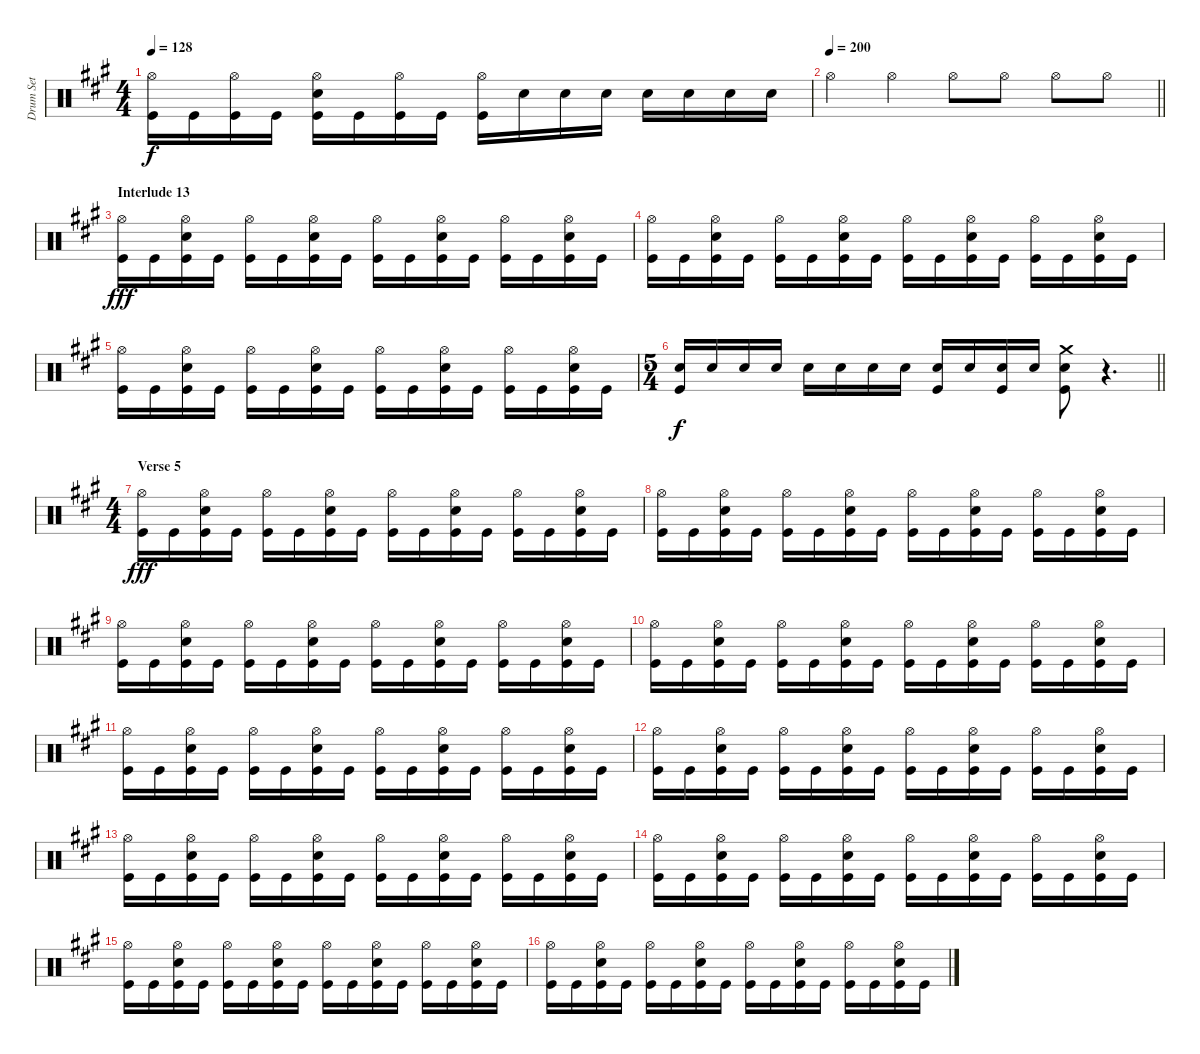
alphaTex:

\track ("Drum Set" "Drum Set") {instrument percussion}
\staff {score}
\articulation defaults
\ts (4 4)
\tempo 128
\clef neutral
\ks a
("Hi-Hat (open)" "Kick (hit)").16{dy f} "Kick (hit)".16 ("Hi-Hat (open)" "Kick (hit)").16 "Kick (hit)".16 ("Electric Snare (hit)" "Hi-Hat (open)" "Kick (hit)").16 "Kick (hit)".16 ("Hi-Hat (open)" "Kick (hit)").16 "Kick (hit)".16 ("Hi-Hat (open)" "Kick (hit)").16 "Electric Snare (hit)".16 "Electric Snare (hit)".16 "Electric Snare (hit)".16 "Electric Snare (hit)".16 "Electric Snare (hit)".16 "Electric Snare (hit)".16 "Electric Snare (hit)".16 |
\tempo 200
\barLineRight lightlight "Hi-Hat (open)".4 "Hi-Hat (open)".4 "Hi-Hat (open)".8 "Hi-Hat (open)".8 "Hi-Hat (open)".8 "Hi-Hat (open)".8
|
\section ("" "Interlude 13")
("Hi-Hat (open)" "Kick (hit)").16{dy fff} "Kick (hit)".16 ("Electric Snare (hit)" "Hi-Hat (open)" "Kick (hit)").16 "Kick (hit)".16 ("Hi-Hat (open)" "Kick (hit)").16 "Kick (hit)".16 ("Electric Snare (hit)" "Hi-Hat (open)" "Kick (hit)").16 "Kick (hit)".16 ("Hi-Hat (open)" "Kick (hit)").16 "Kick (hit)".16 ("Electric Snare (hit)" "Hi-Hat (open)" "Kick (hit)").16 "Kick (hit)".16 ("Hi-Hat (open)" "Kick (hit)").16 "Kick (hit)".16 ("Electric Snare (hit)" "Hi-Hat (open)" "Kick (hit)").16 "Kick (hit)".16 |
("Hi-Hat (open)" "Kick (hit)").16 "Kick (hit)".16 ("Electric Snare (hit)" "Hi-Hat (open)" "Kick (hit)").16 "Kick (hit)".16 ("Hi-Hat (open)" "Kick (hit)").16 "Kick (hit)".16 ("Electric Snare (hit)" "Hi-Hat (open)" "Kick (hit)").16 "Kick (hit)".16 ("Hi-Hat (open)" "Kick (hit)").16 "Kick (hit)".16 ("Electric Snare (hit)" "Hi-Hat (open)" "Kick (hit)").16 "Kick (hit)".16 ("Hi-Hat (open)" "Kick (hit)").16 "Kick (hit)".16 ("Electric Snare (hit)" "Hi-Hat (open)" "Kick (hit)").16 "Kick (hit)".16 |
("Hi-Hat (open)" "Kick (hit)").16 "Kick (hit)".16 ("Electric Snare (hit)" "Hi-Hat (open)" "Kick (hit)").16 "Kick (hit)".16 ("Hi-Hat (open)" "Kick (hit)").16 "Kick (hit)".16 ("Electric Snare (hit)" "Hi-Hat (open)" "Kick (hit)").16 "Kick (hit)".16 ("Hi-Hat (open)" "Kick (hit)").16 "Kick (hit)".16 ("Electric Snare (hit)" "Hi-Hat (open)" "Kick (hit)").16 "Kick (hit)".16 ("Hi-Hat (open)" "Kick (hit)").16 "Kick (hit)".16 ("Electric Snare (hit)" "Hi-Hat (open)" "Kick (hit)").16 "Kick (hit)".16 |
\ts (5 4)
\barLineRight lightlight
("Electric Snare (hit)" "Kick (hit)").16{dy f} "Electric Snare (hit)".16 "Electric Snare (hit)".16 "Electric Snare (hit)".16 "Electric Snare (hit)".16 "Electric Snare (hit)".16 "Electric Snare (hit)".16 "Electric Snare (hit)".16 ("Electric Snare (hit)" "Kick (hit)").16 "Electric Snare (hit)".16 ("Electric Snare (hit)" "Kick (hit)").16 "Electric Snare (hit)".16 ("Crash medium (hit)" "Electric Snare (hit)" "Kick (hit)").8 r.4{d} |
\ts (4 4)
\section ("" "Verse 5")
("Hi-Hat (open)" "Kick (hit)").16{dy fff} "Kick (hit)".16 ("Electric Snare (hit)" "Hi-Hat (open)" "Kick (hit)").16 "Kick (hit)".16 ("Hi-Hat (open)" "Kick (hit)").16 "Kick (hit)".16 ("Electric Snare (hit)" "Hi-Hat (open)" "Kick (hit)").16 "Kick (hit)".16 ("Hi-Hat (open)" "Kick (hit)").16 "Kick (hit)".16 ("Electric Snare (hit)" "Hi-Hat (open)" "Kick (hit)").16 "Kick (hit)".16 ("Hi-Hat (open)" "Kick (hit)").16 "Kick (hit)".16 ("Electric Snare (hit)" "Hi-Hat (open)" "Kick (hit)").16 "Kick (hit)".16 |
("Hi-Hat (open)" "Kick (hit)").16 "Kick (hit)".16 ("Electric Snare (hit)" "Hi-Hat (open)" "Kick (hit)").16 "Kick (hit)".16 ("Hi-Hat (open)" "Kick (hit)").16 "Kick (hit)".16 ("Electric Snare (hit)" "Hi-Hat (open)" "Kick (hit)").16 "Kick (hit)".16 ("Hi-Hat (open)" "Kick (hit)").16 "Kick (hit)".16 ("Electric Snare (hit)" "Hi-Hat (open)" "Kick (hit)").16 "Kick (hit)".16 ("Hi-Hat (open)" "Kick (hit)").16 "Kick (hit)".16 ("Electric Snare (hit)" "Hi-Hat (open)" "Kick (hit)").16 "Kick (hit)".16 |
("Hi-Hat (open)" "Kick (hit)").16 "Kick (hit)".16 ("Electric Snare (hit)" "Hi-Hat (open)" "Kick (hit)").16 "Kick (hit)".16 ("Hi-Hat (open)" "Kick (hit)").16 "Kick (hit)".16 ("Electric Snare (hit)" "Hi-Hat (open)" "Kick (hit)").16 "Kick (hit)".16 ("Hi-Hat (open)" "Kick (hit)").16 "Kick (hit)".16 ("Electric Snare (hit)" "Hi-Hat (open)" "Kick (hit)").16 "Kick (hit)".16 ("Hi-Hat (open)" "Kick (hit)").16 "Kick (hit)".16 ("Electric Snare (hit)" "Hi-Hat (open)" "Kick (hit)").16 "Kick (hit)".16 |
("Hi-Hat (open)" "Kick (hit)").16 "Kick (hit)".16 ("Electric Snare (hit)" "Hi-Hat (open)" "Kick (hit)").16 "Kick (hit)".16 ("Hi-Hat (open)" "Kick (hit)").16 "Kick (hit)".16 ("Electric Snare (hit)" "Hi-Hat (open)" "Kick (hit)").16 "Kick (hit)".16 ("Hi-Hat (open)" "Kick (hit)").16 "Kick (hit)".16 ("Electric Snare (hit)" "Hi-Hat (open)" "Kick (hit)").16 "Kick (hit)".16 ("Hi-Hat (open)" "Kick (hit)").16 "Kick (hit)".16 ("Electric Snare (hit)" "Hi-Hat (open)" "Kick (hit)").16 "Kick (hit)".16 |
("Hi-Hat (open)" "Kick (hit)").16 "Kick (hit)".16 ("Electric Snare (hit)" "Hi-Hat (open)" "Kick (hit)").16 "Kick (hit)".16 ("Hi-Hat (open)" "Kick (hit)").16 "Kick (hit)".16 ("Electric Snare (hit)" "Hi-Hat (open)" "Kick (hit)").16 "Kick (hit)".16 ("Hi-Hat (open)" "Kick (hit)").16 "Kick (hit)".16 ("Electric Snare (hit)" "Hi-Hat (open)" "Kick (hit)").16 "Kick (hit)".16 ("Hi-Hat (open)" "Kick (hit)").16 "Kick (hit)".16 ("Electric Snare (hit)" "Hi-Hat (open)" "Kick (hit)").16 "Kick (hit)".16 |
("Hi-Hat (open)" "Kick (hit)").16 "Kick (hit)".16 ("Electric Snare (hit)" "Hi-Hat (open)" "Kick (hit)").16 "Kick (hit)".16 ("Hi-Hat (open)" "Kick (hit)").16 "Kick (hit)".16 ("Electric Snare (hit)" "Hi-Hat (open)" "Kick (hit)").16 "Kick (hit)".16 ("Hi-Hat (open)" "Kick (hit)").16 "Kick (hit)".16 ("Electric Snare (hit)" "Hi-Hat (open)" "Kick (hit)").16 "Kick (hit)".16 ("Hi-Hat (open)" "Kick (hit)").16 "Kick (hit)".16 ("Electric Snare (hit)" "Hi-Hat (open)" "Kick (hit)").16 "Kick (hit)".16 |
("Hi-Hat (open)" "Kick (hit)").16 "Kick (hit)".16 ("Electric Snare (hit)" "Hi-Hat (open)" "Kick (hit)").16 "Kick (hit)".16 ("Hi-Hat (open)" "Kick (hit)").16 "Kick (hit)".16 ("Electric Snare (hit)" "Hi-Hat (open)" "Kick (hit)").16 "Kick (hit)".16 ("Hi-Hat (open)" "Kick (hit)").16 "Kick (hit)".16 ("Electric Snare (hit)" "Hi-Hat (open)" "Kick (hit)").16 "Kick (hit)".16 ("Hi-Hat (open)" "Kick (hit)").16 "Kick (hit)".16 ("Electric Snare (hit)" "Hi-Hat (open)" "Kick (hit)").16 "Kick (hit)".16 |
("Hi-Hat (open)" "Kick (hit)").16 "Kick (hit)".16 ("Electric Snare (hit)" "Hi-Hat (open)" "Kick (hit)").16 "Kick (hit)".16 ("Hi-Hat (open)" "Kick (hit)").16 "Kick (hit)".16 ("Electric Snare (hit)" "Hi-Hat (open)" "Kick (hit)").16 "Kick (hit)".16 ("Hi-Hat (open)" "Kick (hit)").16 "Kick (hit)".16 ("Electric Snare (hit)" "Hi-Hat (open)" "Kick (hit)").16 "Kick (hit)".16 ("Hi-Hat (open)" "Kick (hit)").16 "Kick (hit)".16 ("Electric Snare (hit)" "Hi-Hat (open)" "Kick (hit)").16 "Kick (hit)".16 |
("Hi-Hat (open)" "Kick (hit)").16 "Kick (hit)".16 ("Electric Snare (hit)" "Hi-Hat (open)" "Kick (hit)").16 "Kick (hit)".16 ("Hi-Hat (open)" "Kick (hit)").16 "Kick (hit)".16 ("Electric Snare (hit)" "Hi-Hat (open)" "Kick (hit)").16 "Kick (hit)".16 ("Hi-Hat (open)" "Kick (hit)").16 "Kick (hit)".16 ("Electric Snare (hit)" "Hi-Hat (open)" "Kick (hit)").16 "Kick (hit)".16 ("Hi-Hat (open)" "Kick (hit)").16 "Kick (hit)".16 ("Electric Snare (hit)" "Hi-Hat (open)" "Kick (hit)").16 "Kick (hit)".16 |
("Hi-Hat (open)" "Kick (hit)").16 "Kick (hit)".16 ("Electric Snare (hit)" "Hi-Hat (open)" "Kick (hit)").16 "Kick (hit)".16 ("Hi-Hat (open)" "Kick (hit)").16 "Kick (hit)".16 ("Electric Snare (hit)" "Hi-Hat (open)" "Kick (hit)").16 "Kick (hit)".16 ("Hi-Hat (open)" "Kick (hit)").16 "Kick (hit)".16 ("Electric Snare (hit)" "Hi-Hat (open)" "Kick (hit)").16 "Kick (hit)".16 ("Hi-Hat (open)" "Kick (hit)").16 "Kick (hit)".16 ("Electric Snare (hit)" "Hi-Hat (open)" "Kick (hit)").16 "Kick (hit)".16
